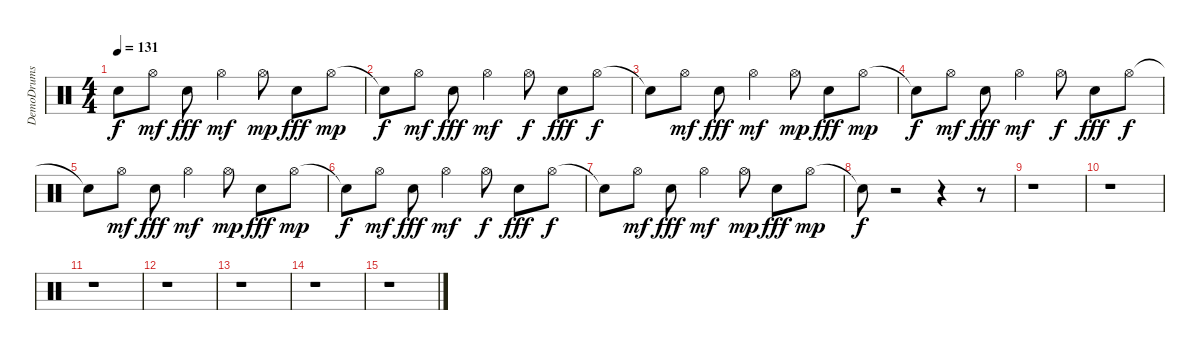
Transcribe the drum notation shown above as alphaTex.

\track ("DemoDrums" "DemoDrums") {instrument percussion}
\staff {score}
\articulation defaults
\ts (4 4)
\tempo 131
\clef neutral
\ks c "Snare (hit)"{t}.8{dy f} "Hi-Hat (open)".8{dy mf} "Electric Snare (hit)".8{dy fff} "Hi-Hat (open)".4{dy mf} "Hi-Hat (open)".8{dy mp} "Electric Snare (hit)".8{dy fff} "Hi-Hat (open)".8{dy mp}
|
"Snare (hit)"{t}.8{dy f} "Hi-Hat (open)".8{dy mf} "Electric Snare (hit)".8{dy fff} "Hi-Hat (open)".4{dy mf} "Hi-Hat (open)".8{dy f} "Electric Snare (hit)".8{dy fff} "Hi-Hat (open)".8{dy f} |
"Snare (hit)"{t}.8 "Hi-Hat (open)".8{dy mf} "Electric Snare (hit)".8{dy fff} "Hi-Hat (open)".4{dy mf} "Hi-Hat (open)".8{dy mp} "Electric Snare (hit)".8{dy fff} "Hi-Hat (open)".8{dy mp} |
"Snare (hit)"{t}.8{dy f} "Hi-Hat (open)".8{dy mf} "Electric Snare (hit)".8{dy fff} "Hi-Hat (open)".4{dy mf} "Hi-Hat (open)".8{dy f} "Electric Snare (hit)".8{dy fff} "Hi-Hat (open)".8{dy f} |
"Snare (hit)"{t}.8 "Hi-Hat (open)".8{dy mf} "Electric Snare (hit)".8{dy fff} "Hi-Hat (open)".4{dy mf} "Hi-Hat (open)".8{dy mp} "Electric Snare (hit)".8{dy fff} "Hi-Hat (open)".8{dy mp} |
"Snare (hit)"{t}.8{dy f} "Hi-Hat (open)".8{dy mf} "Electric Snare (hit)".8{dy fff} "Hi-Hat (open)".4{dy mf} "Hi-Hat (open)".8{dy f} "Electric Snare (hit)".8{dy fff} "Hi-Hat (open)".8{dy f} |
"Snare (hit)"{t}.8 "Hi-Hat (open)".8{dy mf} "Electric Snare (hit)".8{dy fff} "Hi-Hat (open)".4{dy mf} "Hi-Hat (open)".8{dy mp} "Electric Snare (hit)".8{dy fff} "Hi-Hat (open)".8{dy mp} |
"Snare (hit)"{t}.8{dy f} r.2 r.4 r.8 |
r.1 |
r.1 |
r.1 |
r.1 |
r.1 |
r.1 |
r.1
